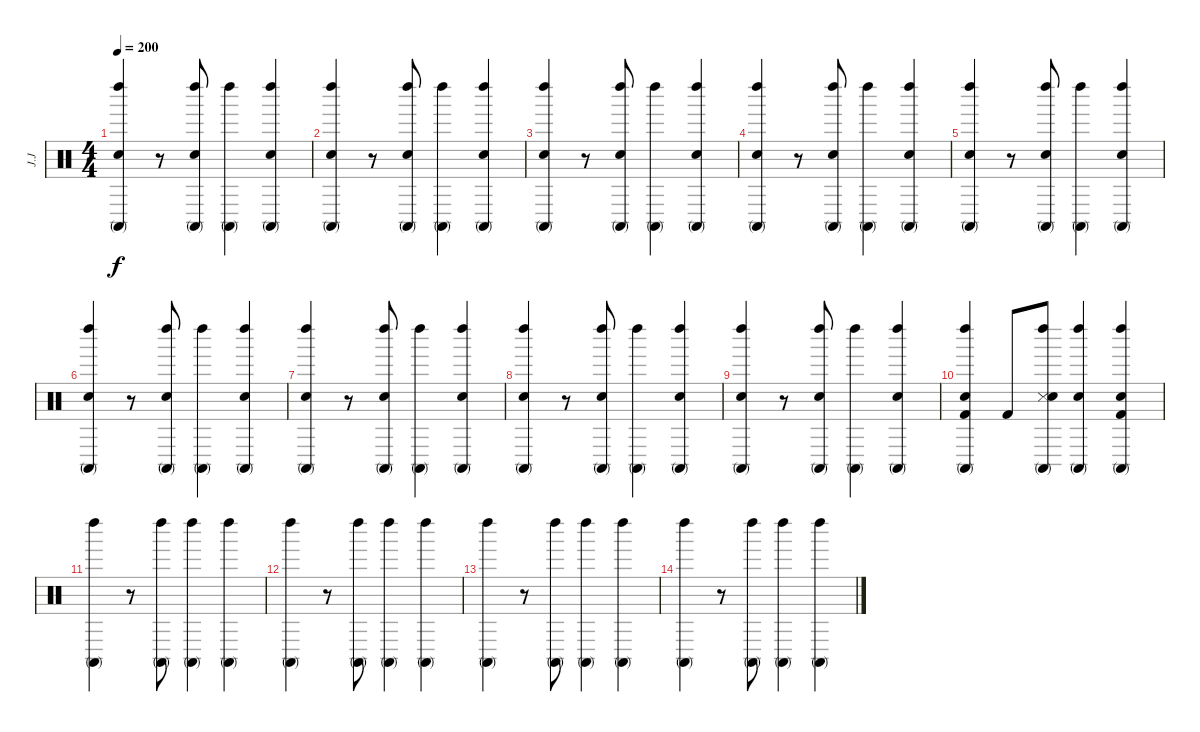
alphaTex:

\track ("J.J" "J.J") {instrument percussion}
\staff {score}
\articulation defaults
\ts (4 4)
\tempo 200
\clef neutral
\ks c
("Conga high (mute)" "Left Maraca (hit)" "Snare (hit) 2").4{dy f} r.8 ("Conga high (mute)" "Left Maraca (hit)" "Snare (hit) 2").8 ("Conga high (mute)" "Left Maraca (hit)").4 ("Conga high (mute)" "Left Maraca (hit)" "Snare (hit) 2").4 |
("Conga high (mute)" "Left Maraca (hit)" "Snare (hit) 2").4 r.8 ("Conga high (mute)" "Left Maraca (hit)" "Snare (hit) 2").8 ("Conga high (mute)" "Left Maraca (hit)").4 ("Conga high (mute)" "Left Maraca (hit)" "Snare (hit) 2").4 |
("Conga high (mute)" "Left Maraca (hit)" "Snare (hit) 2").4 r.8 ("Conga high (mute)" "Left Maraca (hit)" "Snare (hit) 2").8 ("Conga high (mute)" "Left Maraca (hit)").4 ("Conga high (mute)" "Left Maraca (hit)" "Snare (hit) 2").4 |
("Conga high (mute)" "Left Maraca (hit)" "Snare (hit) 2").4 r.8 ("Conga high (mute)" "Left Maraca (hit)" "Snare (hit) 2").8 ("Conga high (mute)" "Left Maraca (hit)").4 ("Conga high (mute)" "Left Maraca (hit)" "Snare (hit) 2").4 |
("Conga high (mute)" "Left Maraca (hit)" "Snare (hit) 2").4 r.8 ("Conga high (mute)" "Left Maraca (hit)" "Snare (hit) 2").8 ("Conga high (mute)" "Left Maraca (hit)").4 ("Conga high (mute)" "Left Maraca (hit)" "Snare (hit) 2").4 |
("Conga high (mute)" "Left Maraca (hit)" "Snare (hit) 2").4 r.8 ("Conga high (mute)" "Left Maraca (hit)" "Snare (hit) 2").8 ("Conga high (mute)" "Left Maraca (hit)").4 ("Conga high (mute)" "Left Maraca (hit)" "Snare (hit) 2").4 |
("Conga high (mute)" "Left Maraca (hit)" "Snare (hit) 2").4 r.8 ("Conga high (mute)" "Left Maraca (hit)" "Snare (hit) 2").8 ("Conga high (mute)" "Left Maraca (hit)").4 ("Conga high (mute)" "Left Maraca (hit)" "Snare (hit) 2").4 |
("Conga high (mute)" "Left Maraca (hit)" "Snare (hit) 2").4 r.8 ("Conga high (mute)" "Left Maraca (hit)" "Snare (hit) 2").8 ("Conga high (mute)" "Left Maraca (hit)").4 ("Conga high (mute)" "Left Maraca (hit)" "Snare (hit) 2").4 |
("Conga high (mute)" "Left Maraca (hit)" "Snare (hit) 2").4 r.8 ("Conga high (mute)" "Left Maraca (hit)" "Snare (hit) 2").8 ("Conga high (mute)" "Left Maraca (hit)").4 ("Conga high (mute)" "Left Maraca (hit)" "Snare (hit) 2").4 |
("Conga high (mute)" "Left Maraca (hit)" "Kick (hit) 2" "Snare (hit) 2").4 "Kick (hit) 2".8 ("Conga high (mute)" "Left Maraca (hit)" "Snare (side stick) 3" "Snare (hit) 2").8 ("Conga high (mute)" "Left Maraca (hit)" "Snare (hit) 2").4 ("Conga high (mute)" "Left Maraca (hit)" "Kick (hit) 2" "Snare (hit) 2").4 |
("Conga high (mute)" "Left Maraca (hit)").4 r.8 ("Conga high (mute)" "Left Maraca (hit)").8 ("Conga high (mute)" "Left Maraca (hit)").4 ("Conga high (mute)" "Left Maraca (hit)").4 |
("Conga high (mute)" "Left Maraca (hit)").4 r.8 ("Conga high (mute)" "Left Maraca (hit)").8 ("Conga high (mute)" "Left Maraca (hit)").4 ("Conga high (mute)" "Left Maraca (hit)").4 |
("Conga high (mute)" "Left Maraca (hit)").4 r.8 ("Conga high (mute)" "Left Maraca (hit)").8 ("Conga high (mute)" "Left Maraca (hit)").4 ("Conga high (mute)" "Left Maraca (hit)").4 |
("Conga high (mute)" "Left Maraca (hit)").4 r.8 ("Conga high (mute)" "Left Maraca (hit)").8 ("Conga high (mute)" "Left Maraca (hit)").4 ("Conga high (mute)" "Left Maraca (hit)").4
